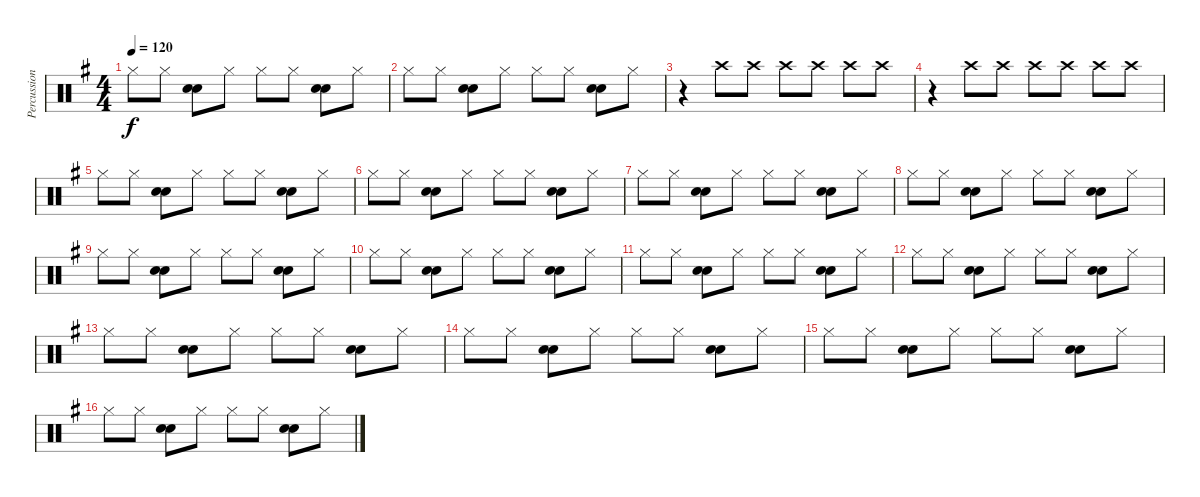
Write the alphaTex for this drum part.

\track ("Percussions" "Percussion") {instrument percussion}
\staff {score}
\articulation defaults
\ts (4 4)
\tempo 120
\clef neutral
\ks g "Hi-Hat (closed)".8{dy f} "Hi-Hat (closed)".8
("Snare (hit) 2" "Electric Snare (hit)").8 "Hi-Hat (closed)".8 "Hi-Hat (closed)".8 "Hi-Hat (closed)".8 ("Snare (hit) 2" "Electric Snare (hit)").8 "Hi-Hat (closed)".8 |
"Hi-Hat (closed)".8 "Hi-Hat (closed)".8 ("Snare (hit) 2" "Electric Snare (hit)").8 "Hi-Hat (closed)".8 "Hi-Hat (closed)".8 "Hi-Hat (closed)".8 ("Snare (hit) 2" "Electric Snare (hit)").8 "Hi-Hat (closed)".8 |
r.4 "Crash high (hit)".8 "Crash high (hit)".8 "Crash high (hit)".8 "Crash high (hit)".8 "Crash high (hit)".8 "Crash high (hit)".8 |
r.4 "Crash high (hit)".8 "Crash high (hit)".8 "Crash high (hit)".8 "Crash high (hit)".8 "Crash high (hit)".8 "Crash high (hit)".8 |
"Hi-Hat (closed)".8 "Hi-Hat (closed)".8 ("Snare (hit) 2" "Electric Snare (hit)").8 "Hi-Hat (closed)".8 "Hi-Hat (closed)".8 "Hi-Hat (closed)".8 ("Snare (hit) 2" "Electric Snare (hit)").8 "Hi-Hat (closed)".8 |
"Hi-Hat (closed)".8 "Hi-Hat (closed)".8 ("Snare (hit) 2" "Electric Snare (hit)").8 "Hi-Hat (closed)".8 "Hi-Hat (closed)".8 "Hi-Hat (closed)".8 ("Snare (hit) 2" "Electric Snare (hit)").8 "Hi-Hat (closed)".8 |
"Hi-Hat (closed)".8 "Hi-Hat (closed)".8 ("Snare (hit) 2" "Electric Snare (hit)").8 "Hi-Hat (closed)".8 "Hi-Hat (closed)".8 "Hi-Hat (closed)".8 ("Snare (hit) 2" "Electric Snare (hit)").8 "Hi-Hat (closed)".8 |
"Hi-Hat (closed)".8 "Hi-Hat (closed)".8 ("Snare (hit) 2" "Electric Snare (hit)").8 "Hi-Hat (closed)".8 "Hi-Hat (closed)".8 "Hi-Hat (closed)".8 ("Snare (hit) 2" "Electric Snare (hit)").8 "Hi-Hat (closed)".8 |
"Hi-Hat (closed)".8 "Hi-Hat (closed)".8 ("Snare (hit) 2" "Electric Snare (hit)").8 "Hi-Hat (closed)".8 "Hi-Hat (closed)".8 "Hi-Hat (closed)".8 ("Snare (hit) 2" "Electric Snare (hit)").8 "Hi-Hat (closed)".8 |
"Hi-Hat (closed)".8 "Hi-Hat (closed)".8 ("Snare (hit) 2" "Electric Snare (hit)").8 "Hi-Hat (closed)".8 "Hi-Hat (closed)".8 "Hi-Hat (closed)".8 ("Snare (hit) 2" "Electric Snare (hit)").8 "Hi-Hat (closed)".8 |
"Hi-Hat (closed)".8 "Hi-Hat (closed)".8 ("Snare (hit) 2" "Electric Snare (hit)").8 "Hi-Hat (closed)".8 "Hi-Hat (closed)".8 "Hi-Hat (closed)".8 ("Snare (hit) 2" "Electric Snare (hit)").8 "Hi-Hat (closed)".8 |
"Hi-Hat (closed)".8 "Hi-Hat (closed)".8 ("Snare (hit) 2" "Electric Snare (hit)").8 "Hi-Hat (closed)".8 "Hi-Hat (closed)".8 "Hi-Hat (closed)".8 ("Snare (hit) 2" "Electric Snare (hit)").8 "Hi-Hat (closed)".8 |
"Hi-Hat (closed)".8 "Hi-Hat (closed)".8 ("Snare (hit) 2" "Electric Snare (hit)").8 "Hi-Hat (closed)".8 "Hi-Hat (closed)".8 "Hi-Hat (closed)".8 ("Snare (hit) 2" "Electric Snare (hit)").8 "Hi-Hat (closed)".8 |
"Hi-Hat (closed)".8 "Hi-Hat (closed)".8 ("Snare (hit) 2" "Electric Snare (hit)").8 "Hi-Hat (closed)".8 "Hi-Hat (closed)".8 "Hi-Hat (closed)".8 ("Snare (hit) 2" "Electric Snare (hit)").8 "Hi-Hat (closed)".8 |
"Hi-Hat (closed)".8 "Hi-Hat (closed)".8 ("Snare (hit) 2" "Electric Snare (hit)").8 "Hi-Hat (closed)".8 "Hi-Hat (closed)".8 "Hi-Hat (closed)".8 ("Snare (hit) 2" "Electric Snare (hit)").8 "Hi-Hat (closed)".8 |
"Hi-Hat (closed)".8 "Hi-Hat (closed)".8 ("Snare (hit) 2" "Electric Snare (hit)").8 "Hi-Hat (closed)".8 "Hi-Hat (closed)".8 "Hi-Hat (closed)".8 ("Snare (hit) 2" "Electric Snare (hit)").8 "Hi-Hat (closed)".8
